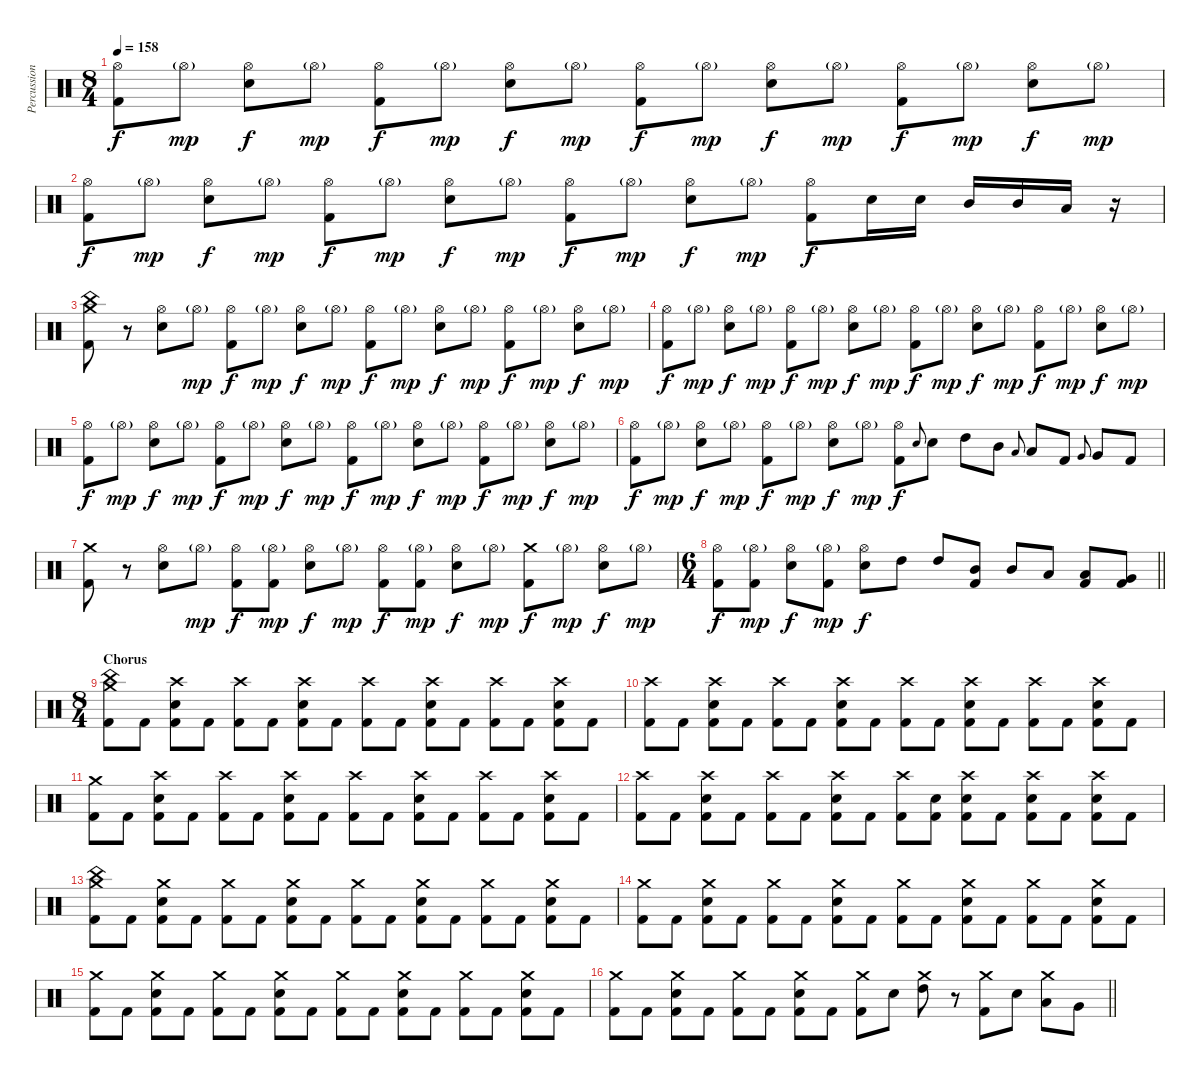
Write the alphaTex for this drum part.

\track ("Percussion" "Percussion") {instrument percussion}
\staff {score}
\articulation defaults
\ts (8 4)
\tempo 158
\clef neutral
\ks c
("Hi-Hat (open)" "Kick (hit) 2").8{dy f} "Hi-Hat (open)"{g}.8{dy mp} ("Hi-Hat (open)" "Electric Snare (hit)").8{dy f} "Hi-Hat (open)"{g}.8{dy mp} ("Hi-Hat (open)" "Kick (hit) 2").8{dy f} "Hi-Hat (open)"{g}.8{dy mp} ("Hi-Hat (open)" "Electric Snare (hit)").8{dy f} "Hi-Hat (open)"{g}.8{dy mp} ("Hi-Hat (open)" "Kick (hit) 2").8{dy f} "Hi-Hat (open)"{g}.8{dy mp} ("Hi-Hat (open)" "Electric Snare (hit)").8{dy f} "Hi-Hat (open)"{g}.8{dy mp} ("Hi-Hat (open)" "Kick (hit) 2").8{dy f} "Hi-Hat (open)"{g}.8{dy mp} ("Hi-Hat (open)" "Electric Snare (hit)").8{dy f} "Hi-Hat (open)"{g}.8{dy mp} |
("Hi-Hat (open)" "Kick (hit) 2").8{dy f} "Hi-Hat (open)"{g}.8{dy mp} ("Hi-Hat (open)" "Electric Snare (hit)").8{dy f} "Hi-Hat (open)"{g}.8{dy mp} ("Hi-Hat (open)" "Kick (hit) 2").8{dy f} "Hi-Hat (open)"{g}.8{dy mp} ("Hi-Hat (open)" "Electric Snare (hit)").8{dy f} "Hi-Hat (open)"{g}.8{dy mp} ("Hi-Hat (open)" "Kick (hit) 2").8{dy f} "Hi-Hat (open)"{g}.8{dy mp} ("Hi-Hat (open)" "Electric Snare (hit)").8{dy f} "Hi-Hat (open)"{g}.8{dy mp} ("Hi-Hat (open)" "Kick (hit) 2").8{dy f} "Electric Snare (hit)".16 "Electric Snare (hit)".16 "Mid Tom (hit)".16 "Mid Tom (hit)".16 "Low Tom (hit)".16 r.16 |
("China (hit)" "Crash medium (hit)" "Kick (hit) 2").8 r.8 ("Hi-Hat (open)" "Electric Snare (hit)").8 "Hi-Hat (open)"{g}.8{dy mp} ("Hi-Hat (open)" "Kick (hit) 2").8{dy f} "Hi-Hat (open)"{g}.8{dy mp} ("Hi-Hat (open)" "Electric Snare (hit)").8{dy f} "Hi-Hat (open)"{g}.8{dy mp} ("Hi-Hat (open)" "Kick (hit) 2").8{dy f} "Hi-Hat (open)"{g}.8{dy mp} ("Hi-Hat (open)" "Electric Snare (hit)").8{dy f} "Hi-Hat (open)"{g}.8{dy mp} ("Hi-Hat (open)" "Kick (hit) 2").8{dy f} "Hi-Hat (open)"{g}.8{dy mp} ("Hi-Hat (open)" "Electric Snare (hit)").8{dy f} "Hi-Hat (open)"{g}.8{dy mp} |
("Hi-Hat (open)" "Kick (hit) 2").8{dy f} "Hi-Hat (open)"{g}.8{dy mp} ("Hi-Hat (open)" "Electric Snare (hit)").8{dy f} "Hi-Hat (open)"{g}.8{dy mp} ("Hi-Hat (open)" "Kick (hit) 2").8{dy f} "Hi-Hat (open)"{g}.8{dy mp} ("Hi-Hat (open)" "Electric Snare (hit)").8{dy f} "Hi-Hat (open)"{g}.8{dy mp} ("Hi-Hat (open)" "Kick (hit) 2").8{dy f} "Hi-Hat (open)"{g}.8{dy mp} ("Hi-Hat (open)" "Electric Snare (hit)").8{dy f} "Hi-Hat (open)"{g}.8{dy mp} ("Hi-Hat (open)" "Kick (hit) 2").8{dy f} "Hi-Hat (open)"{g}.8{dy mp} ("Hi-Hat (open)" "Electric Snare (hit)").8{dy f} "Hi-Hat (open)"{g}.8{dy mp} |
("Hi-Hat (open)" "Kick (hit) 2").8{dy f} "Hi-Hat (open)"{g}.8{dy mp} ("Hi-Hat (open)" "Electric Snare (hit)").8{dy f} "Hi-Hat (open)"{g}.8{dy mp} ("Hi-Hat (open)" "Kick (hit) 2").8{dy f} "Hi-Hat (open)"{g}.8{dy mp} ("Hi-Hat (open)" "Electric Snare (hit)").8{dy f} "Hi-Hat (open)"{g}.8{dy mp} ("Hi-Hat (open)" "Kick (hit) 2").8{dy f} "Hi-Hat (open)"{g}.8{dy mp} ("Hi-Hat (open)" "Electric Snare (hit)").8{dy f} "Hi-Hat (open)"{g}.8{dy mp} ("Hi-Hat (open)" "Kick (hit) 2").8{dy f} "Hi-Hat (open)"{g}.8{dy mp} ("Hi-Hat (open)" "Electric Snare (hit)").8{dy f} "Hi-Hat (open)"{g}.8{dy mp} |
("Hi-Hat (open)" "Kick (hit) 2").8{dy f} "Hi-Hat (open)"{g}.8{dy mp} ("Hi-Hat (open)" "Electric Snare (hit)").8{dy f} "Hi-Hat (open)"{g}.8{dy mp} ("Hi-Hat (open)" "Kick (hit) 2").8{dy f} "Hi-Hat (open)"{g}.8{dy mp} ("Hi-Hat (open)" "Electric Snare (hit)").8{dy f} "Hi-Hat (open)"{g}.8{dy mp} ("Hi-Hat (open)" "Kick (hit) 2").8{dy f} "Electric Snare (hit)".8{gr onbeat} "Electric Snare (hit)".8 "High Tom (hit)".8 "Mid Tom (hit)".8 "Low Tom (hit)".8{gr onbeat} "Low Tom (hit)".8 "Kick (hit) 2".8 "Very Low Tom (hit)".8{gr onbeat} "Very Low Tom (hit)".8 "Kick (hit) 2".8 |
("Crash medium (hit)" "Kick (hit) 2").8 r.8 ("Hi-Hat (open)" "Electric Snare (hit)").8 "Hi-Hat (open)"{g}.8{dy mp} ("Hi-Hat (open)" "Kick (hit) 2").8{dy f} ("Hi-Hat (open)"{g} "Kick (hit) 2").8{dy mp} ("Hi-Hat (open)" "Electric Snare (hit)").8{dy f} "Hi-Hat (open)"{g}.8{dy mp} ("Hi-Hat (open)" "Kick (hit) 2").8{dy f} ("Hi-Hat (open)"{g} "Kick (hit) 2").8{dy mp} ("Hi-Hat (open)" "Electric Snare (hit)").8{dy f} "Hi-Hat (open)"{g}.8{dy mp} ("Crash medium (hit)" "Kick (hit) 2").8{dy f} "Hi-Hat (open)"{g}.8{dy mp} ("Hi-Hat (open)" "Electric Snare (hit)").8{dy f} "Hi-Hat (open)"{g}.8{dy mp} |
\ts (6 4)
\barLineRight lightlight
("Hi-Hat (open)" "Kick (hit) 2").8{dy f} ("Hi-Hat (open)"{g} "Kick (hit) 2").8{dy mp} ("Hi-Hat (open)" "Electric Snare (hit)").8{dy f} ("Hi-Hat (open)"{g} "Kick (hit) 2").8{dy mp} ("Hi-Hat (open)" "Electric Snare (hit)").8{dy f} "High Tom (hit)".8 "High Tom (hit)".8 ("Mid Tom (hit)" "Kick (hit) 2").8 "Mid Tom (hit)".8 "Low Tom (hit)".8 ("Low Tom (hit)" "Kick (hit) 2").8 ("Very Low Tom (hit)" "Kick (hit) 2").8 |
\ts (8 4)
\section ("" "Chorus")
("Crash medium (hit)" "China (hit)" "Kick (hit) 2").8 "Kick (hit) 2".8 ("Crash high (hit)" "Electric Snare (hit)" "Kick (hit) 2").8 "Kick (hit) 2".8 ("Crash high (hit)" "Kick (hit) 2").8 "Kick (hit) 2".8 ("Crash high (hit)" "Electric Snare (hit)" "Kick (hit) 2").8 "Kick (hit) 2".8 ("Crash high (hit)" "Kick (hit) 2").8 "Kick (hit) 2".8 ("Crash high (hit)" "Electric Snare (hit)" "Kick (hit) 2").8 "Kick (hit) 2".8 ("Crash high (hit)" "Kick (hit) 2").8 "Kick (hit) 2".8 ("Crash high (hit)" "Electric Snare (hit)" "Kick (hit) 2").8 "Kick (hit) 2".8 |
("Crash high (hit)" "Kick (hit) 2").8 "Kick (hit) 2".8 ("Crash high (hit)" "Electric Snare (hit)" "Kick (hit) 2").8 "Kick (hit) 2".8 ("Crash high (hit)" "Kick (hit) 2").8 "Kick (hit) 2".8 ("Crash high (hit)" "Electric Snare (hit)" "Kick (hit) 2").8 "Kick (hit) 2".8 ("Crash high (hit)" "Kick (hit) 2").8 "Kick (hit) 2".8 ("Crash high (hit)" "Electric Snare (hit)" "Kick (hit) 2").8 "Kick (hit) 2".8 ("Crash high (hit)" "Kick (hit) 2").8 "Kick (hit) 2".8 ("Crash high (hit)" "Electric Snare (hit)" "Kick (hit) 2").8 "Kick (hit) 2".8 |
("Crash medium (hit)" "Kick (hit) 2").8 "Kick (hit) 2".8 ("Crash high (hit)" "Electric Snare (hit)" "Kick (hit) 2").8 "Kick (hit) 2".8 ("Crash high (hit)" "Kick (hit) 2").8 "Kick (hit) 2".8 ("Crash high (hit)" "Electric Snare (hit)" "Kick (hit) 2").8 "Kick (hit) 2".8 ("Crash high (hit)" "Kick (hit) 2").8 "Kick (hit) 2".8 ("Crash high (hit)" "Electric Snare (hit)" "Kick (hit) 2").8 "Kick (hit) 2".8 ("Crash high (hit)" "Kick (hit) 2").8 "Kick (hit) 2".8 ("Crash high (hit)" "Electric Snare (hit)" "Kick (hit) 2").8 "Kick (hit) 2".8 |
("Crash high (hit)" "Kick (hit) 2").8 "Kick (hit) 2".8 ("Crash high (hit)" "Electric Snare (hit)" "Kick (hit) 2").8 "Kick (hit) 2".8 ("Crash high (hit)" "Kick (hit) 2").8 "Kick (hit) 2".8 ("Crash high (hit)" "Electric Snare (hit)" "Kick (hit) 2").8 "Kick (hit) 2".8 ("Crash high (hit)" "Kick (hit) 2").8 ("Electric Snare (hit)" "Kick (hit) 2").8 ("Crash high (hit)" "Electric Snare (hit)" "Kick (hit) 2").8 "Kick (hit) 2".8 ("Crash high (hit)" "Electric Snare (hit)" "Kick (hit) 2").8 "Kick (hit) 2".8 ("Crash high (hit)" "Electric Snare (hit)" "Kick (hit) 2").8 "Kick (hit) 2".8 |
("Crash medium (hit)" "China (hit)" "Kick (hit) 2").8 "Kick (hit) 2".8 ("Crash medium (hit)" "Electric Snare (hit)" "Kick (hit) 2").8 "Kick (hit) 2".8 ("Crash medium (hit)" "Kick (hit) 2").8 "Kick (hit) 2".8 ("Crash medium (hit)" "Electric Snare (hit)" "Kick (hit) 2").8 "Kick (hit) 2".8 ("Crash medium (hit)" "Kick (hit) 2").8 "Kick (hit) 2".8 ("Crash medium (hit)" "Electric Snare (hit)" "Kick (hit) 2").8 "Kick (hit) 2".8 ("Crash medium (hit)" "Kick (hit) 2").8 "Kick (hit) 2".8 ("Crash medium (hit)" "Electric Snare (hit)" "Kick (hit) 2").8 "Kick (hit) 2".8 |
("Crash medium (hit)" "Kick (hit) 2").8 "Kick (hit) 2".8 ("Crash medium (hit)" "Electric Snare (hit)" "Kick (hit) 2").8 "Kick (hit) 2".8 ("Crash medium (hit)" "Kick (hit) 2").8 "Kick (hit) 2".8 ("Crash medium (hit)" "Electric Snare (hit)" "Kick (hit) 2").8 "Kick (hit) 2".8 ("Crash medium (hit)" "Kick (hit) 2").8 "Kick (hit) 2".8 ("Crash medium (hit)" "Electric Snare (hit)" "Kick (hit) 2").8 "Kick (hit) 2".8 ("Crash medium (hit)" "Kick (hit) 2").8 "Kick (hit) 2".8 ("Crash medium (hit)" "Electric Snare (hit)" "Kick (hit) 2").8 "Kick (hit) 2".8 |
("Crash medium (hit)" "Kick (hit) 2").8 "Kick (hit) 2".8 ("Crash medium (hit)" "Electric Snare (hit)" "Kick (hit) 2").8 "Kick (hit) 2".8 ("Crash medium (hit)" "Kick (hit) 2").8 "Kick (hit) 2".8 ("Crash medium (hit)" "Electric Snare (hit)" "Kick (hit) 2").8 "Kick (hit) 2".8 ("Crash medium (hit)" "Kick (hit) 2").8 "Kick (hit) 2".8 ("Crash medium (hit)" "Electric Snare (hit)" "Kick (hit) 2").8 "Kick (hit) 2".8 ("Crash medium (hit)" "Kick (hit) 2").8 "Kick (hit) 2".8 ("Crash medium (hit)" "Electric Snare (hit)" "Kick (hit) 2").8 "Kick (hit) 2".8 |
\barLineRight lightlight
("Crash medium (hit)" "Kick (hit) 2").8 "Kick (hit) 2".8 ("Crash medium (hit)" "Electric Snare (hit)" "Kick (hit) 2").8 "Kick (hit) 2".8 ("Crash medium (hit)" "Kick (hit) 2").8 "Kick (hit) 2".8 ("Crash medium (hit)" "Electric Snare (hit)" "Kick (hit) 2").8 "Kick (hit) 2".8 ("Crash medium (hit)" "Kick (hit) 2").8 "Electric Snare (hit)".8 ("Crash medium (hit)" "High Tom (hit)").8 r.8 ("Crash medium (hit)" "Kick (hit) 2").8 "Electric Snare (hit)".8 ("Crash medium (hit)" "Low Tom (hit)").8 "Very Low Tom (hit)".8
